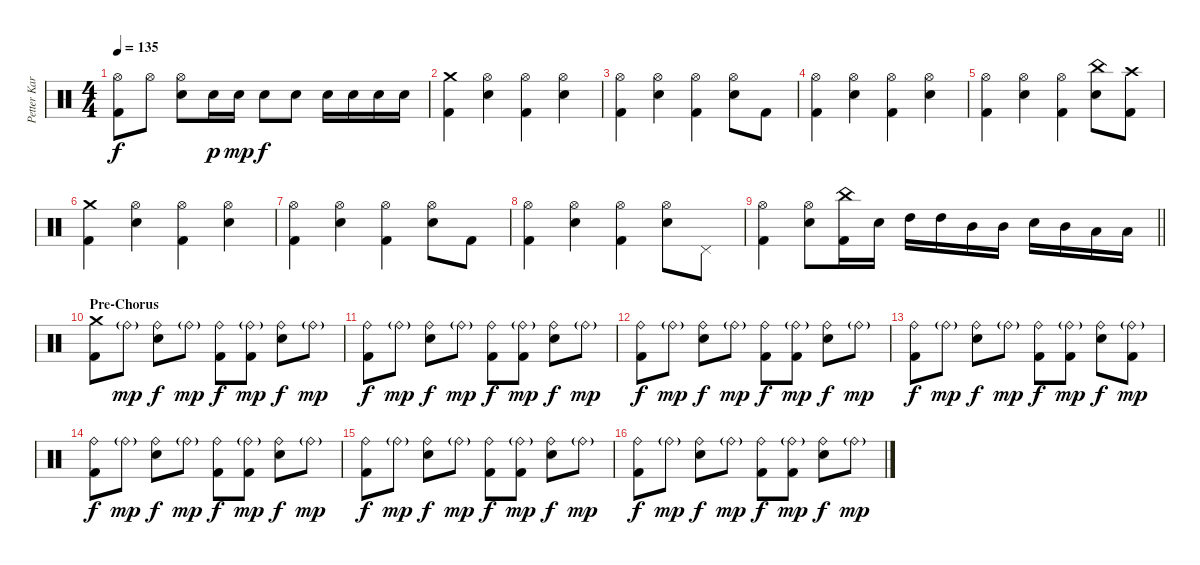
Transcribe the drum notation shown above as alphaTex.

\track ("Petter Karlsson" "Petter Kar") {instrument percussion}
\staff {score}
\articulation defaults
\ts (4 4)
\tempo 135
\clef neutral
\ks c
("Hi-Hat (open)" "Kick (hit) 2").8{dy f} "Hi-Hat (open)".8 ("Hi-Hat (open)" "Electric Snare (hit)").8 "Electric Snare (hit)".16{dy p} "Electric Snare (hit)".16{dy mp} "Electric Snare (hit)".8{dy f} "Electric Snare (hit)".8 "Electric Snare (hit)".16 "Electric Snare (hit)".16 "Electric Snare (hit)".16 "Electric Snare (hit)".16 |
("Crash medium (hit)" "Kick (hit) 2").4 ("Hi-Hat (open)" "Electric Snare (hit)").4 ("Hi-Hat (open)" "Kick (hit) 2").4 ("Hi-Hat (open)" "Electric Snare (hit)").4 |
("Hi-Hat (open)" "Kick (hit) 2").4 ("Hi-Hat (open)" "Electric Snare (hit)").4 ("Hi-Hat (open)" "Kick (hit) 2").4 ("Hi-Hat (open)" "Electric Snare (hit)").8 "Kick (hit) 2".8 |
("Hi-Hat (open)" "Kick (hit) 2").4 ("Hi-Hat (open)" "Electric Snare (hit)").4 ("Hi-Hat (open)" "Kick (hit) 2").4 ("Hi-Hat (open)" "Electric Snare (hit)").4 |
("Hi-Hat (open)" "Kick (hit) 2").4 ("Hi-Hat (open)" "Electric Snare (hit)").4 ("Hi-Hat (open)" "Kick (hit) 2").4 ("China (hit)" "Electric Snare (hit)").8 ("Crash high (hit)" "Kick (hit) 2").8 |
("Crash medium (hit)" "Kick (hit) 2").4 ("Hi-Hat (open)" "Electric Snare (hit)").4 ("Hi-Hat (open)" "Kick (hit) 2").4 ("Hi-Hat (open)" "Electric Snare (hit)").4 |
("Hi-Hat (open)" "Kick (hit) 2").4 ("Hi-Hat (open)" "Electric Snare (hit)").4 ("Hi-Hat (open)" "Kick (hit) 2").4 ("Hi-Hat (open)" "Electric Snare (hit)").8 "Kick (hit) 2".8 |
("Hi-Hat (open)" "Kick (hit) 2").4 ("Hi-Hat (open)" "Electric Snare (hit)").4 ("Hi-Hat (open)" "Kick (hit) 2").4 ("Hi-Hat (open)" "Electric Snare (hit)").8 "Pedal Hi-Hat (hit)".8 |
\barLineRight lightlight
("Hi-Hat (open)" "Kick (hit) 2").4 ("Hi-Hat (open)" "Electric Snare (hit)").8 ("China (hit)" "Kick (hit) 2").16 "Electric Snare (hit)".16 "High Tom (hit)".16 "High Tom (hit)".16 "Mid Tom (hit)".16 "Mid Tom (hit)".16 "Electric Snare (hit)".16 "Mid Tom (hit)".16 "Low Tom (hit)".16 "Low Tom (hit)".16 |
\section ("" "Pre-Chorus")
("Crash medium (hit)" "Kick (hit) 2").8 "Ride (bell)"{g}.8{dy mp} ("Ride (bell)" "Electric Snare (hit)").8{dy f} "Ride (bell)"{g}.8{dy mp} ("Ride (bell)" "Kick (hit) 2").8{dy f} ("Ride (bell)"{g} "Kick (hit) 2").8{dy mp} ("Ride (bell)" "Electric Snare (hit)").8{dy f} "Ride (bell)"{g}.8{dy mp} |
("Ride (bell)" "Kick (hit) 2").8{dy f} "Ride (bell)"{g}.8{dy mp} ("Ride (bell)" "Electric Snare (hit)").8{dy f} "Ride (bell)"{g}.8{dy mp} ("Ride (bell)" "Kick (hit) 2").8{dy f} ("Ride (bell)"{g} "Kick (hit) 2").8{dy mp} ("Ride (bell)" "Electric Snare (hit)").8{dy f} "Ride (bell)"{g}.8{dy mp} |
("Ride (bell)" "Kick (hit) 2").8{dy f} "Ride (bell)"{g}.8{dy mp} ("Ride (bell)" "Electric Snare (hit)").8{dy f} "Ride (bell)"{g}.8{dy mp} ("Ride (bell)" "Kick (hit) 2").8{dy f} ("Ride (bell)"{g} "Kick (hit) 2").8{dy mp} ("Ride (bell)" "Electric Snare (hit)").8{dy f} "Ride (bell)"{g}.8{dy mp} |
("Ride (bell)" "Kick (hit) 2").8{dy f} "Ride (bell)"{g}.8{dy mp} ("Ride (bell)" "Electric Snare (hit)").8{dy f} "Ride (bell)"{g}.8{dy mp} ("Ride (bell)" "Kick (hit) 2").8{dy f} ("Ride (bell)"{g} "Kick (hit) 2").8{dy mp} ("Ride (bell)" "Electric Snare (hit)").8{dy f} ("Ride (bell)"{g} "Kick (hit) 2").8{dy mp} |
("Ride (bell)" "Kick (hit) 2").8{dy f} "Ride (bell)"{g}.8{dy mp} ("Ride (bell)" "Electric Snare (hit)").8{dy f} "Ride (bell)"{g}.8{dy mp} ("Ride (bell)" "Kick (hit) 2").8{dy f} ("Ride (bell)"{g} "Kick (hit) 2").8{dy mp} ("Ride (bell)" "Electric Snare (hit)").8{dy f} "Ride (bell)"{g}.8{dy mp} |
("Ride (bell)" "Kick (hit) 2").8{dy f} "Ride (bell)"{g}.8{dy mp} ("Ride (bell)" "Electric Snare (hit)").8{dy f} "Ride (bell)"{g}.8{dy mp} ("Ride (bell)" "Kick (hit) 2").8{dy f} ("Ride (bell)"{g} "Kick (hit) 2").8{dy mp} ("Ride (bell)" "Electric Snare (hit)").8{dy f} "Ride (bell)"{g}.8{dy mp} |
("Ride (bell)" "Kick (hit) 2").8{dy f} "Ride (bell)"{g}.8{dy mp} ("Ride (bell)" "Electric Snare (hit)").8{dy f} "Ride (bell)"{g}.8{dy mp} ("Ride (bell)" "Kick (hit) 2").8{dy f} ("Ride (bell)"{g} "Kick (hit) 2").8{dy mp} ("Ride (bell)" "Electric Snare (hit)").8{dy f} "Ride (bell)"{g}.8{dy mp}
